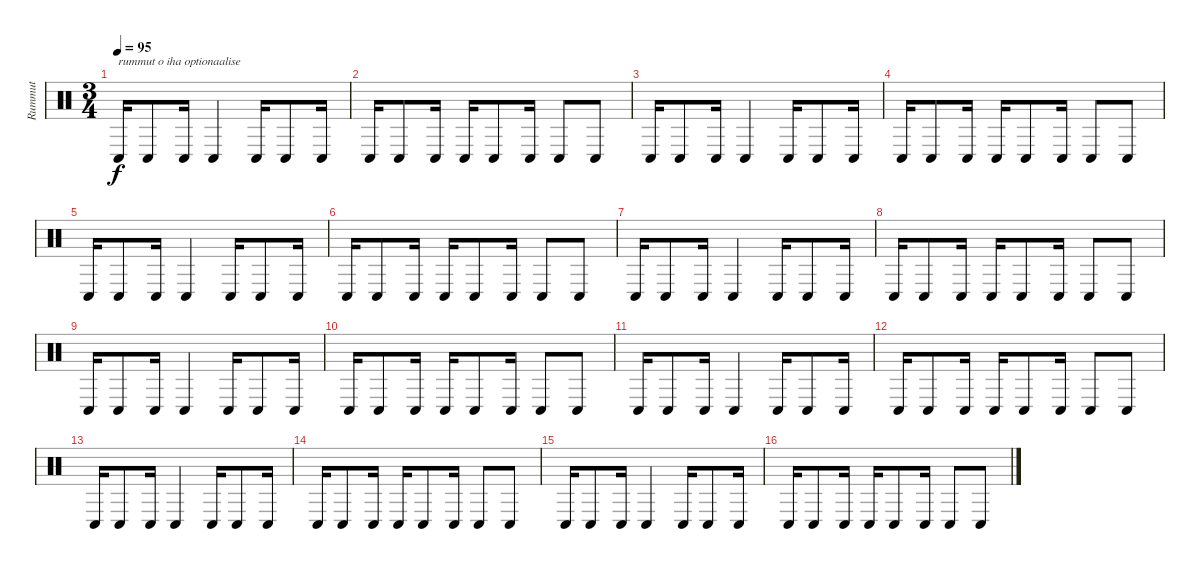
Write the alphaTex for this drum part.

\track ("Rummut" "Rummut") {instrument percussion}
\staff {score}
\articulation defaults
\ts (3 4)
\tempo 95
\clef neutral
\ks c "Conga low (hit)".16{txt "rummut o iha optionaalise" dy f} "Conga low (hit)".8 "Conga low (hit)".16 "Conga low (hit)".4 "Conga low (hit)".16 "Conga low (hit)".8 "Conga low (hit)".16
|
"Conga low (hit)".16 "Conga low (hit)".8 "Conga low (hit)".16 "Conga low (hit)".16 "Conga low (hit)".8 "Conga low (hit)".16 "Conga low (hit)".8 "Conga low (hit)".8 |
"Conga low (hit)".16 "Conga low (hit)".8 "Conga low (hit)".16 "Conga low (hit)".4 "Conga low (hit)".16 "Conga low (hit)".8 "Conga low (hit)".16 |
"Conga low (hit)".16 "Conga low (hit)".8 "Conga low (hit)".16 "Conga low (hit)".16 "Conga low (hit)".8 "Conga low (hit)".16 "Conga low (hit)".8 "Conga low (hit)".8 |
"Conga low (hit)".16 "Conga low (hit)".8 "Conga low (hit)".16 "Conga low (hit)".4 "Conga low (hit)".16 "Conga low (hit)".8 "Conga low (hit)".16 |
"Conga low (hit)".16 "Conga low (hit)".8 "Conga low (hit)".16 "Conga low (hit)".16 "Conga low (hit)".8 "Conga low (hit)".16 "Conga low (hit)".8 "Conga low (hit)".8 |
"Conga low (hit)".16 "Conga low (hit)".8 "Conga low (hit)".16 "Conga low (hit)".4 "Conga low (hit)".16 "Conga low (hit)".8 "Conga low (hit)".16 |
"Conga low (hit)".16 "Conga low (hit)".8 "Conga low (hit)".16 "Conga low (hit)".16 "Conga low (hit)".8 "Conga low (hit)".16 "Conga low (hit)".8 "Conga low (hit)".8 |
"Conga low (hit)".16 "Conga low (hit)".8 "Conga low (hit)".16 "Conga low (hit)".4 "Conga low (hit)".16 "Conga low (hit)".8 "Conga low (hit)".16 |
"Conga low (hit)".16 "Conga low (hit)".8 "Conga low (hit)".16 "Conga low (hit)".16 "Conga low (hit)".8 "Conga low (hit)".16 "Conga low (hit)".8 "Conga low (hit)".8 |
"Conga low (hit)".16 "Conga low (hit)".8 "Conga low (hit)".16 "Conga low (hit)".4 "Conga low (hit)".16 "Conga low (hit)".8 "Conga low (hit)".16 |
"Conga low (hit)".16 "Conga low (hit)".8 "Conga low (hit)".16 "Conga low (hit)".16 "Conga low (hit)".8 "Conga low (hit)".16 "Conga low (hit)".8 "Conga low (hit)".8 |
"Conga low (hit)".16 "Conga low (hit)".8 "Conga low (hit)".16 "Conga low (hit)".4 "Conga low (hit)".16 "Conga low (hit)".8 "Conga low (hit)".16 |
"Conga low (hit)".16 "Conga low (hit)".8 "Conga low (hit)".16 "Conga low (hit)".16 "Conga low (hit)".8 "Conga low (hit)".16 "Conga low (hit)".8 "Conga low (hit)".8 |
"Conga low (hit)".16 "Conga low (hit)".8 "Conga low (hit)".16 "Conga low (hit)".4 "Conga low (hit)".16 "Conga low (hit)".8 "Conga low (hit)".16 |
"Conga low (hit)".16 "Conga low (hit)".8 "Conga low (hit)".16 "Conga low (hit)".16 "Conga low (hit)".8 "Conga low (hit)".16 "Conga low (hit)".8 "Conga low (hit)".8
